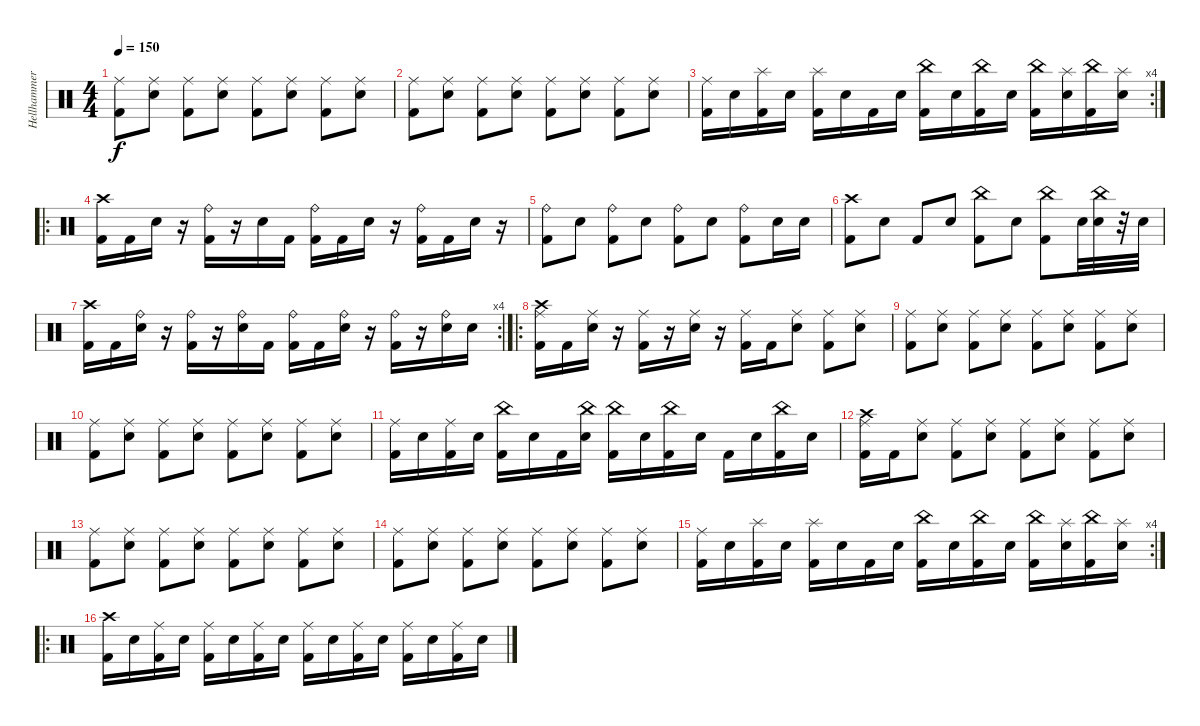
\track ("Hellhammer" "Hellhammer") {instrument percussion}
\staff {score}
\articulation defaults
\ts (4 4)
\tempo 150
\clef neutral
\ks c
("Ride (middle)" "Kick (hit) 2").8{dy f} ("Ride (middle)" "Electric Snare (hit)").8 ("Ride (middle)" "Kick (hit) 2").8 ("Ride (middle)" "Electric Snare (hit)").8 ("Ride (middle)" "Kick (hit) 2").8 ("Ride (middle)" "Electric Snare (hit)").8 ("Ride (middle)" "Kick (hit) 2").8 ("Ride (middle)" "Electric Snare (hit)").8 |
("Ride (middle)" "Kick (hit) 2").8 ("Ride (middle)" "Electric Snare (hit)").8 ("Ride (middle)" "Kick (hit) 2").8 ("Ride (middle)" "Electric Snare (hit)").8 ("Ride (middle)" "Kick (hit) 2").8 ("Ride (middle)" "Electric Snare (hit)").8 ("Ride (middle)" "Kick (hit) 2").8 ("Ride (middle)" "Electric Snare (hit)").8 |
\rc 4
("Ride (middle)" "Kick (hit) 2").16 "Electric Snare (hit)".16 ("Splash (hit)" "Kick (hit) 2").16 "Electric Snare (hit)".16 ("Splash (hit)" "Kick (hit) 2").16 "Electric Snare (hit)".16 "Kick (hit) 2".16 "Electric Snare (hit)".16 ("China (hit)" "Kick (hit) 2").16 "Electric Snare (hit)".16 ("China (hit)" "Kick (hit) 2").16 "Electric Snare (hit)".16 ("China (hit)" "Kick (hit) 2").16 ("Splash (hit)" "Electric Snare (hit)").16 ("China (hit)" "Kick (hit) 2").16 ("Splash (hit)" "Electric Snare (hit)").16 |
\ro
("Crash high (hit)" "Kick (hit) 2").16 "Kick (hit) 2".16 "Electric Snare (hit)".16 r.16 ("Ride (bell)" "Kick (hit) 2").16 r.16 "Electric Snare (hit)".16 "Kick (hit) 2".16 ("Ride (bell)" "Kick (hit) 2").16 "Kick (hit) 2".16 "Electric Snare (hit)".16 r.16 ("Ride (bell)" "Kick (hit) 2").16 "Kick (hit) 2".16 "Electric Snare (hit)".16 r.16 |
("Ride (bell)" "Kick (hit) 2").8 "Electric Snare (hit)".8 ("Ride (bell)" "Kick (hit) 2").8 "Electric Snare (hit)".8 ("Ride (bell)" "Kick (hit) 2").8 "Electric Snare (hit)".8 ("Ride (bell)" "Kick (hit) 2").8 "Electric Snare (hit)".16 "Electric Snare (hit)".16 |
("Crash high (hit)" "Kick (hit) 2").8 "Electric Snare (hit)".8 "Kick (hit) 2".8 "Electric Snare (hit)".8 ("China (hit)" "Kick (hit) 2").8 "Electric Snare (hit)".8 ("China (hit)" "Kick (hit) 2").8 "Electric Snare (hit)".32 ("China (hit)" "Electric Snare (hit)").32 r.32 "Electric Snare (hit)".32 |
\rc 4
("Crash high (hit)" "Kick (hit) 2").16 "Kick (hit) 2".16 ("Ride (bell)" "Electric Snare (hit)").16 r.16 ("Ride (bell)" "Kick (hit) 2").16 r.16 ("Ride (bell)" "Electric Snare (hit)").16 "Kick (hit) 2".16 ("Ride (bell)" "Kick (hit) 2").16 "Kick (hit) 2".16 ("Ride (bell)" "Electric Snare (hit)").16 r.16 ("Ride (bell)" "Kick (hit) 2").16 r.16 ("Ride (bell)" "Electric Snare (hit)").16 "Electric Snare (hit)".16 |
\ro
("Ride (middle)" "Crash high (hit)" "Kick (hit) 2").16 "Kick (hit) 2".16 ("Ride (middle)" "Electric Snare (hit)").16 r.16 ("Ride (middle)" "Kick (hit) 2").16 r.16 ("Ride (middle)" "Electric Snare (hit)").16 r.16 ("Ride (middle)" "Kick (hit) 2").16 "Kick (hit) 2".16 ("Ride (middle)" "Electric Snare (hit)").8 ("Ride (middle)" "Kick (hit) 2").8 ("Ride (middle)" "Electric Snare (hit)").8 |
("Ride (middle)" "Kick (hit) 2").8 ("Ride (middle)" "Electric Snare (hit)").8 ("Ride (middle)" "Kick (hit) 2").8 ("Ride (middle)" "Electric Snare (hit)").8 ("Ride (middle)" "Kick (hit) 2").8 ("Ride (middle)" "Electric Snare (hit)").8 ("Ride (middle)" "Kick (hit) 2").8 ("Ride (middle)" "Electric Snare (hit)").8 |
("Ride (middle)" "Kick (hit) 2").8 ("Ride (middle)" "Electric Snare (hit)").8 ("Ride (middle)" "Kick (hit) 2").8 ("Ride (middle)" "Electric Snare (hit)").8 ("Ride (middle)" "Kick (hit) 2").8 ("Ride (middle)" "Electric Snare (hit)").8 ("Ride (middle)" "Kick (hit) 2").8 ("Ride (middle)" "Electric Snare (hit)").8 |
("Ride (middle)" "Kick (hit) 2").16 "Electric Snare (hit)".16 ("Ride (middle)" "Kick (hit) 2").16 "Electric Snare (hit)".16 ("China (hit)" "Kick (hit) 2").16 "Electric Snare (hit)".16 "Kick (hit) 2".16 ("China (hit)" "Electric Snare (hit)").16 ("China (hit)" "Kick (hit) 2").16 "Electric Snare (hit)".16 ("China (hit)" "Kick (hit) 2").16 "Electric Snare (hit)".16 "Kick (hit) 2".16 "Electric Snare (hit)".16 ("China (hit)" "Kick (hit) 2").16 "Electric Snare (hit)".16 |
("Crash high (hit)" "Ride (middle)" "Kick (hit) 2").16 "Kick (hit) 2".16 ("Ride (middle)" "Electric Snare (hit)").8 ("Ride (middle)" "Kick (hit) 2").8 ("Ride (middle)" "Electric Snare (hit)").8 ("Ride (middle)" "Kick (hit) 2").8 ("Ride (middle)" "Electric Snare (hit)").8 ("Ride (middle)" "Kick (hit) 2").8 ("Ride (middle)" "Electric Snare (hit)").8 |
("Ride (middle)" "Kick (hit) 2").8 ("Ride (middle)" "Electric Snare (hit)").8 ("Ride (middle)" "Kick (hit) 2").8 ("Ride (middle)" "Electric Snare (hit)").8 ("Ride (middle)" "Kick (hit) 2").8 ("Ride (middle)" "Electric Snare (hit)").8 ("Ride (middle)" "Kick (hit) 2").8 ("Ride (middle)" "Electric Snare (hit)").8 |
("Ride (middle)" "Kick (hit) 2").8 ("Ride (middle)" "Electric Snare (hit)").8 ("Ride (middle)" "Kick (hit) 2").8 ("Ride (middle)" "Electric Snare (hit)").8 ("Ride (middle)" "Kick (hit) 2").8 ("Ride (middle)" "Electric Snare (hit)").8 ("Ride (middle)" "Kick (hit) 2").8 ("Ride (middle)" "Electric Snare (hit)").8 |
\rc 4
("Ride (middle)" "Kick (hit) 2").16 "Electric Snare (hit)".16 ("Splash (hit)" "Kick (hit) 2").16 "Electric Snare (hit)".16 ("Splash (hit)" "Kick (hit) 2").16 "Electric Snare (hit)".16 "Kick (hit) 2".16 "Electric Snare (hit)".16 ("China (hit)" "Kick (hit) 2").16 "Electric Snare (hit)".16 ("China (hit)" "Kick (hit) 2").16 "Electric Snare (hit)".16 ("China (hit)" "Kick (hit) 2").16 ("Splash (hit)" "Electric Snare (hit)").16 ("China (hit)" "Kick (hit) 2").16 ("Splash (hit)" "Electric Snare (hit)").16 |
\ro
("Crash high (hit)" "Kick (hit) 2").16 "Electric Snare (hit)".16 ("Ride (middle)" "Kick (hit) 2").16 "Electric Snare (hit)".16 ("Ride (middle)" "Kick (hit) 2").16 "Electric Snare (hit)".16 ("Ride (middle)" "Kick (hit) 2").16 "Electric Snare (hit)".16 ("Ride (middle)" "Kick (hit) 2").16 "Electric Snare (hit)".16 ("Ride (middle)" "Kick (hit) 2").16 "Electric Snare (hit)".16 ("Ride (middle)" "Kick (hit) 2").16 "Electric Snare (hit)".16 ("Ride (middle)" "Kick (hit) 2").16 "Electric Snare (hit)".16
